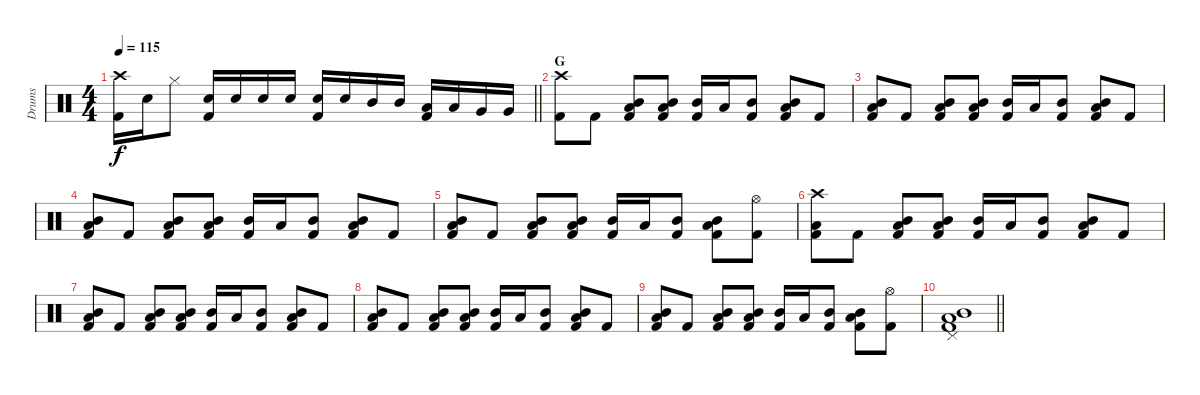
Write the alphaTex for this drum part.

\track ("Drums" "Drums") {instrument percussion}
\staff {score}
\articulation defaults
\ts (4 4)
\tempo 115
\clef neutral
\barLineRight lightlight
\ks c
("Crash high (hit)" "Kick (hit) 2").16{dy f} "Snare (hit) 2".16 "Hi-Hat (closed)".8 ("Snare (hit) 2" "Kick (hit) 2").16 "Snare (hit) 2".16 "Snare (hit) 2".16 "Snare (hit) 2".16 ("Snare (hit) 2" "Kick (hit) 2").16 "Snare (hit) 2".16 "Mid Tom (hit)".16 "Mid Tom (hit)".16 ("Low Tom (hit)" "Kick (hit) 2").16 "Low Tom (hit)".16 "Very Low Tom (hit)".16 "Very Low Tom (hit)".16 |
\section ("" "G")
("Crash high (hit)" "Kick (hit) 2").8 "Kick (hit) 2".8 ("Mid Tom (hit)" "Low Tom (hit)" "Kick (hit) 2").8 ("Mid Tom (hit)" "Low Tom (hit)" "Kick (hit) 2").8 ("Mid Tom (hit)" "Kick (hit) 2").16 "Low Tom (hit)".16 ("Mid Tom (hit)" "Kick (hit) 2").8 ("Mid Tom (hit)" "Low Tom (hit)" "Kick (hit) 2").8 "Kick (hit) 2".8 |
("Mid Tom (hit)" "Low Tom (hit)" "Kick (hit) 2").8 "Kick (hit) 2".8 ("Mid Tom (hit)" "Low Tom (hit)" "Kick (hit) 2").8 ("Mid Tom (hit)" "Low Tom (hit)" "Kick (hit) 2").8 ("Mid Tom (hit)" "Kick (hit) 2").16 "Low Tom (hit)".16 ("Mid Tom (hit)" "Kick (hit) 2").8 ("Mid Tom (hit)" "Low Tom (hit)" "Kick (hit) 2").8 "Kick (hit) 2".8 |
("Mid Tom (hit)" "Low Tom (hit)" "Kick (hit) 2").8 "Kick (hit) 2".8 ("Mid Tom (hit)" "Low Tom (hit)" "Kick (hit) 2").8 ("Mid Tom (hit)" "Low Tom (hit)" "Kick (hit) 2").8 ("Mid Tom (hit)" "Kick (hit) 2").16 "Low Tom (hit)".16 ("Mid Tom (hit)" "Kick (hit) 2").8 ("Mid Tom (hit)" "Low Tom (hit)" "Kick (hit) 2").8 "Kick (hit) 2".8 |
("Mid Tom (hit)" "Low Tom (hit)" "Kick (hit) 2").8 "Kick (hit) 2".8 ("Mid Tom (hit)" "Low Tom (hit)" "Kick (hit) 2").8 ("Mid Tom (hit)" "Low Tom (hit)" "Kick (hit) 2").8 ("Mid Tom (hit)" "Kick (hit) 2").16 "Low Tom (hit)".16 ("Mid Tom (hit)" "Kick (hit) 2").8 ("Mid Tom (hit)" "Low Tom (hit)" "Kick (hit) 2").8 ("Hi-Hat (open)" "Kick (hit) 2").8 |
("Crash high (hit)" "Low Tom (hit)" "Kick (hit) 2").8 "Kick (hit) 2".8 ("Mid Tom (hit)" "Low Tom (hit)" "Kick (hit) 2").8 ("Mid Tom (hit)" "Low Tom (hit)" "Kick (hit) 2").8 ("Mid Tom (hit)" "Kick (hit) 2").16 "Low Tom (hit)".16 ("Mid Tom (hit)" "Kick (hit) 2").8 ("Mid Tom (hit)" "Low Tom (hit)" "Kick (hit) 2").8 "Kick (hit) 2".8 |
("Mid Tom (hit)" "Low Tom (hit)" "Kick (hit) 2").8 "Kick (hit) 2".8 ("Mid Tom (hit)" "Low Tom (hit)" "Kick (hit) 2").8 ("Mid Tom (hit)" "Low Tom (hit)" "Kick (hit) 2").8 ("Mid Tom (hit)" "Kick (hit) 2").16 "Low Tom (hit)".16 ("Mid Tom (hit)" "Kick (hit) 2").8 ("Mid Tom (hit)" "Low Tom (hit)" "Kick (hit) 2").8 "Kick (hit) 2".8 |
("Mid Tom (hit)" "Low Tom (hit)" "Kick (hit) 2").8 "Kick (hit) 2".8 ("Mid Tom (hit)" "Low Tom (hit)" "Kick (hit) 2").8 ("Mid Tom (hit)" "Low Tom (hit)" "Kick (hit) 2").8 ("Mid Tom (hit)" "Kick (hit) 2").16 "Low Tom (hit)".16 ("Mid Tom (hit)" "Kick (hit) 2").8 ("Mid Tom (hit)" "Low Tom (hit)" "Kick (hit) 2").8 "Kick (hit) 2".8 |
("Mid Tom (hit)" "Low Tom (hit)" "Kick (hit) 2").8 "Kick (hit) 2".8 ("Mid Tom (hit)" "Low Tom (hit)" "Kick (hit) 2").8 ("Mid Tom (hit)" "Low Tom (hit)" "Kick (hit) 2").8 ("Mid Tom (hit)" "Kick (hit) 2").16 "Low Tom (hit)".16 ("Mid Tom (hit)" "Kick (hit) 2").8 ("Mid Tom (hit)" "Low Tom (hit)" "Kick (hit) 2").8 ("Hi-Hat (open)" "Kick (hit) 2").8 |
\barLineRight lightlight
("Mid Tom (hit)" "Low Tom (hit)" "Pedal Hi-Hat (hit)" "Kick (hit) 2").1
